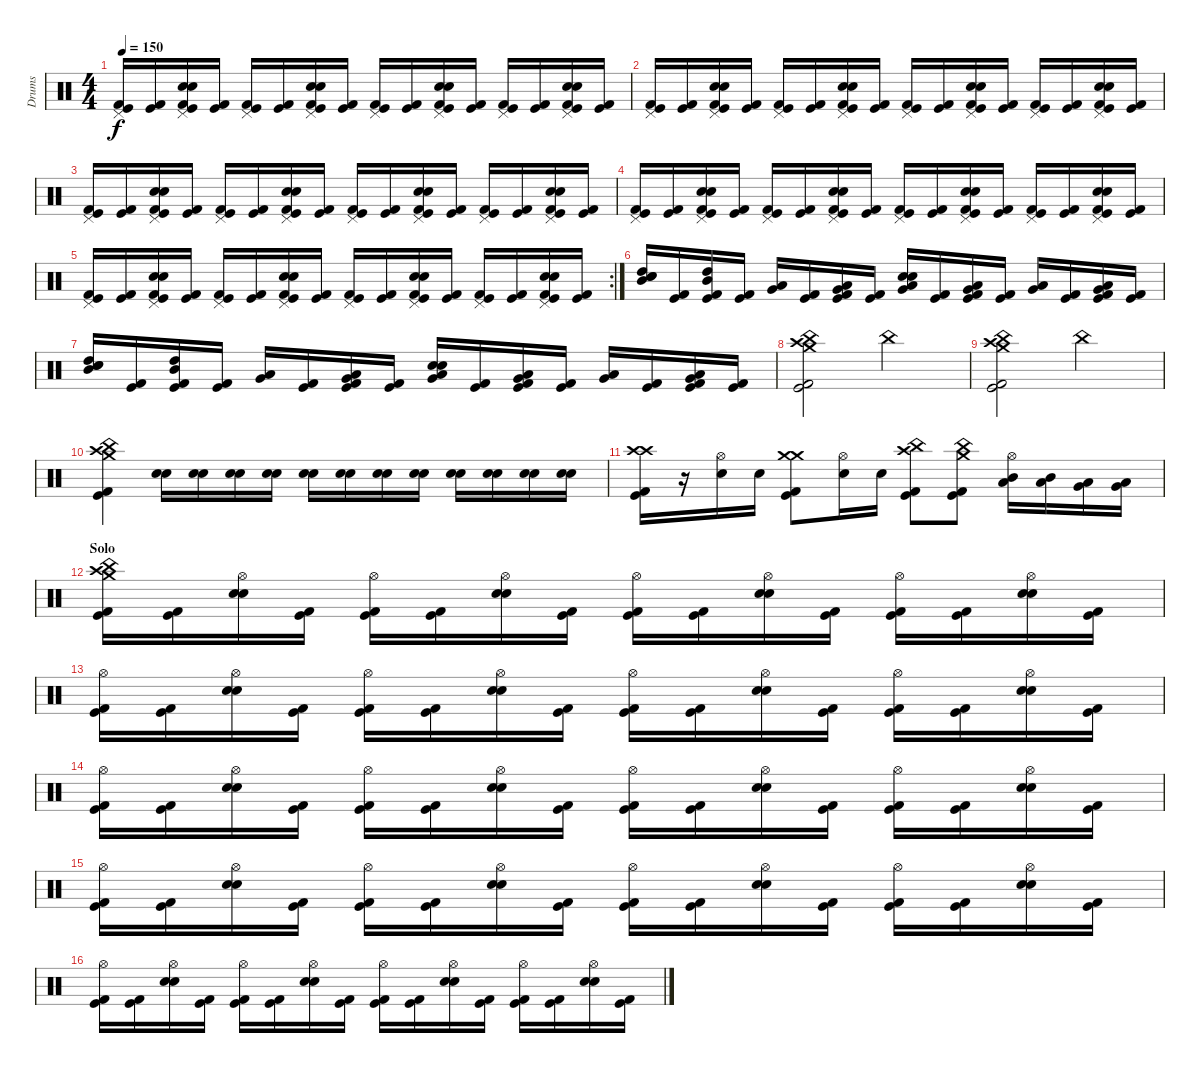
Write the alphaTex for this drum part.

\track ("Drums" "Drums") {instrument percussion}
\staff {score}
\articulation defaults
\ts (4 4)
\tempo 150
\clef neutral
\ks c
("Pedal Hi-Hat (hit)" "Kick (hit) 2" "Kick (hit)").16{dy f} ("Kick (hit) 2" "Kick (hit)").16 ("Pedal Hi-Hat (hit)" "Electric Snare (hit)" "Snare (hit) 2" "Kick (hit) 2" "Kick (hit)").16 ("Kick (hit) 2" "Kick (hit)").16 ("Pedal Hi-Hat (hit)" "Kick (hit) 2" "Kick (hit)").16 ("Kick (hit) 2" "Kick (hit)").16 ("Pedal Hi-Hat (hit)" "Electric Snare (hit)" "Snare (hit) 2" "Kick (hit) 2" "Kick (hit)").16 ("Kick (hit) 2" "Kick (hit)").16 ("Pedal Hi-Hat (hit)" "Kick (hit) 2" "Kick (hit)").16 ("Kick (hit) 2" "Kick (hit)").16 ("Pedal Hi-Hat (hit)" "Electric Snare (hit)" "Snare (hit) 2" "Kick (hit) 2" "Kick (hit)").16 ("Kick (hit) 2" "Kick (hit)").16 ("Pedal Hi-Hat (hit)" "Kick (hit) 2" "Kick (hit)").16 ("Kick (hit) 2" "Kick (hit)").16 ("Pedal Hi-Hat (hit)" "Electric Snare (hit)" "Snare (hit) 2" "Kick (hit) 2" "Kick (hit)").16 ("Kick (hit) 2" "Kick (hit)").16 |
("Pedal Hi-Hat (hit)" "Kick (hit) 2" "Kick (hit)").16 ("Kick (hit) 2" "Kick (hit)").16 ("Pedal Hi-Hat (hit)" "Electric Snare (hit)" "Snare (hit) 2" "Kick (hit) 2" "Kick (hit)").16 ("Kick (hit) 2" "Kick (hit)").16 ("Pedal Hi-Hat (hit)" "Kick (hit) 2" "Kick (hit)").16 ("Kick (hit) 2" "Kick (hit)").16 ("Pedal Hi-Hat (hit)" "Electric Snare (hit)" "Snare (hit) 2" "Kick (hit) 2" "Kick (hit)").16 ("Kick (hit) 2" "Kick (hit)").16 ("Pedal Hi-Hat (hit)" "Kick (hit) 2" "Kick (hit)").16 ("Kick (hit) 2" "Kick (hit)").16 ("Pedal Hi-Hat (hit)" "Electric Snare (hit)" "Snare (hit) 2" "Kick (hit) 2" "Kick (hit)").16 ("Kick (hit) 2" "Kick (hit)").16 ("Pedal Hi-Hat (hit)" "Kick (hit) 2" "Kick (hit)").16 ("Kick (hit) 2" "Kick (hit)").16 ("Pedal Hi-Hat (hit)" "Electric Snare (hit)" "Snare (hit) 2" "Kick (hit) 2" "Kick (hit)").16 ("Kick (hit) 2" "Kick (hit)").16 |
("Pedal Hi-Hat (hit)" "Kick (hit) 2" "Kick (hit)").16 ("Kick (hit) 2" "Kick (hit)").16 ("Pedal Hi-Hat (hit)" "Electric Snare (hit)" "Snare (hit) 2" "Kick (hit) 2" "Kick (hit)").16 ("Kick (hit) 2" "Kick (hit)").16 ("Pedal Hi-Hat (hit)" "Kick (hit) 2" "Kick (hit)").16 ("Kick (hit) 2" "Kick (hit)").16 ("Pedal Hi-Hat (hit)" "Electric Snare (hit)" "Snare (hit) 2" "Kick (hit) 2" "Kick (hit)").16 ("Kick (hit) 2" "Kick (hit)").16 ("Pedal Hi-Hat (hit)" "Kick (hit) 2" "Kick (hit)").16 ("Kick (hit) 2" "Kick (hit)").16 ("Pedal Hi-Hat (hit)" "Electric Snare (hit)" "Snare (hit) 2" "Kick (hit) 2" "Kick (hit)").16 ("Kick (hit) 2" "Kick (hit)").16 ("Pedal Hi-Hat (hit)" "Kick (hit) 2" "Kick (hit)").16 ("Kick (hit) 2" "Kick (hit)").16 ("Pedal Hi-Hat (hit)" "Electric Snare (hit)" "Snare (hit) 2" "Kick (hit) 2" "Kick (hit)").16 ("Kick (hit) 2" "Kick (hit)").16 |
("Pedal Hi-Hat (hit)" "Kick (hit) 2" "Kick (hit)").16 ("Kick (hit) 2" "Kick (hit)").16 ("Pedal Hi-Hat (hit)" "Electric Snare (hit)" "Snare (hit) 2" "Kick (hit) 2" "Kick (hit)").16 ("Kick (hit) 2" "Kick (hit)").16 ("Pedal Hi-Hat (hit)" "Kick (hit) 2" "Kick (hit)").16 ("Kick (hit) 2" "Kick (hit)").16 ("Pedal Hi-Hat (hit)" "Electric Snare (hit)" "Snare (hit) 2" "Kick (hit) 2" "Kick (hit)").16 ("Kick (hit) 2" "Kick (hit)").16 ("Pedal Hi-Hat (hit)" "Kick (hit) 2" "Kick (hit)").16 ("Kick (hit) 2" "Kick (hit)").16 ("Pedal Hi-Hat (hit)" "Electric Snare (hit)" "Snare (hit) 2" "Kick (hit) 2" "Kick (hit)").16 ("Kick (hit) 2" "Kick (hit)").16 ("Pedal Hi-Hat (hit)" "Kick (hit) 2" "Kick (hit)").16 ("Kick (hit) 2" "Kick (hit)").16 ("Pedal Hi-Hat (hit)" "Electric Snare (hit)" "Snare (hit) 2" "Kick (hit) 2" "Kick (hit)").16 ("Kick (hit) 2" "Kick (hit)").16 |
\rc 2
("Pedal Hi-Hat (hit)" "Kick (hit) 2" "Kick (hit)").16 ("Kick (hit) 2" "Kick (hit)").16 ("Pedal Hi-Hat (hit)" "Electric Snare (hit)" "Snare (hit) 2" "Kick (hit) 2" "Kick (hit)").16 ("Kick (hit) 2" "Kick (hit)").16 ("Pedal Hi-Hat (hit)" "Kick (hit) 2" "Kick (hit)").16 ("Kick (hit) 2" "Kick (hit)").16 ("Pedal Hi-Hat (hit)" "Electric Snare (hit)" "Snare (hit) 2" "Kick (hit) 2" "Kick (hit)").16 ("Kick (hit) 2" "Kick (hit)").16 ("Pedal Hi-Hat (hit)" "Kick (hit) 2" "Kick (hit)").16 ("Kick (hit) 2" "Kick (hit)").16 ("Pedal Hi-Hat (hit)" "Electric Snare (hit)" "Snare (hit) 2" "Kick (hit) 2" "Kick (hit)").16 ("Kick (hit) 2" "Kick (hit)").16 ("Pedal Hi-Hat (hit)" "Kick (hit) 2" "Kick (hit)").16 ("Kick (hit) 2" "Kick (hit)").16 ("Pedal Hi-Hat (hit)" "Electric Snare (hit)" "Snare (hit) 2" "Kick (hit) 2" "Kick (hit)").16 ("Kick (hit) 2" "Kick (hit)").16 |
("Snare (hit) 2" "Electric Snare (hit)" "Mid Tom (hit)" "High Tom (hit)").16 ("Kick (hit) 2" "Kick (hit)").16 ("Mid Tom (hit)" "High Tom (hit)" "Kick (hit) 2" "Kick (hit)").16 ("Kick (hit) 2" "Kick (hit)").16 ("Very Low Tom (hit)" "Low Tom (hit)").16 ("Kick (hit) 2" "Kick (hit)").16 ("Very Low Tom (hit)" "Low Tom (hit)" "Kick (hit) 2" "Kick (hit)").16 ("Kick (hit) 2" "Kick (hit)").16 ("Snare (hit) 2" "Electric Snare (hit)" "Very Low Tom (hit)" "Low Floor Tom (hit)").16 ("Kick (hit) 2" "Kick (hit)").16 ("Very Low Tom (hit)" "Low Floor Tom (hit)" "Kick (hit) 2" "Kick (hit)").16 ("Kick (hit) 2" "Kick (hit)").16 ("Low Tom (hit)" "Very Low Tom (hit)").16 ("Kick (hit) 2" "Kick (hit)").16 ("Low Tom (hit)" "Very Low Tom (hit)" "Kick (hit) 2" "Kick (hit)").16 ("Kick (hit) 2" "Kick (hit)").16 |
("Snare (hit) 2" "Electric Snare (hit)" "Mid Tom (hit)" "High Tom (hit)").16 ("Kick (hit) 2" "Kick (hit)").16 ("Mid Tom (hit)" "High Tom (hit)" "Kick (hit) 2" "Kick (hit)").16 ("Kick (hit) 2" "Kick (hit)").16 ("Very Low Tom (hit)" "Low Tom (hit)").16 ("Kick (hit) 2" "Kick (hit)").16 ("Very Low Tom (hit)" "Low Tom (hit)" "Kick (hit) 2" "Kick (hit)").16 ("Kick (hit) 2" "Kick (hit)").16 ("Snare (hit) 2" "Electric Snare (hit)" "Very Low Tom (hit)" "Low Floor Tom (hit)").16 ("Kick (hit) 2" "Kick (hit)").16 ("Very Low Tom (hit)" "Low Floor Tom (hit)" "Kick (hit) 2" "Kick (hit)").16 ("Kick (hit) 2" "Kick (hit)").16 ("Low Tom (hit)" "Very Low Tom (hit)").16 ("Kick (hit) 2" "Kick (hit)").16 ("Low Tom (hit)" "Very Low Tom (hit)" "Kick (hit) 2" "Kick (hit)").16 ("Kick (hit) 2" "Kick (hit)").16 |
("Crash high (hit)" "Crash medium (hit)" "China (hit)" "Kick (hit) 2" "Kick (hit)").2 "China (hit)".2 |
("Crash high (hit)" "Crash medium (hit)" "China (hit)" "Kick (hit) 2" "Kick (hit)").2 "China (hit)".2 |
("Crash medium (hit)" "Crash high (hit)" "China (hit)" "Kick (hit) 2" "Kick (hit)").4 ("Snare (hit) 2" "Electric Snare (hit)").16 ("Snare (hit) 2" "Electric Snare (hit)").16 ("Snare (hit) 2" "Electric Snare (hit)").16 ("Snare (hit) 2" "Electric Snare (hit)").16 ("Snare (hit) 2" "Electric Snare (hit)").16 ("Snare (hit) 2" "Electric Snare (hit)").16 ("Snare (hit) 2" "Electric Snare (hit)").16 ("Snare (hit) 2" "Electric Snare (hit)").16 ("Snare (hit) 2" "Electric Snare (hit)").16 ("Snare (hit) 2" "Electric Snare (hit)").16 ("Snare (hit) 2" "Electric Snare (hit)").16 ("Snare (hit) 2" "Electric Snare (hit)").16 |
("Crash high (hit)" "Crash high (hit)" "Kick (hit) 2" "Kick (hit)").16 r.16 ("Hi-Hat (open)" "Snare (hit) 2").16 "Snare (hit) 2".16 ("Crash medium (hit)" "Crash medium (hit)" "Kick (hit) 2" "Kick (hit)").8 ("Hi-Hat (open)" "Snare (hit) 2").16 "Snare (hit) 2".16 ("China (hit)" "Crash high (hit)" "Kick (hit) 2" "Kick (hit)").8 ("China (hit)" "Crash medium (hit)" "Kick (hit) 2" "Kick (hit)").8 ("Hi-Hat (open)" "Mid Tom (hit)" "Low Tom (hit)").16 ("Mid Tom (hit)" "Low Tom (hit)").16 ("Low Tom (hit)" "Very Low Tom (hit)").16 ("Low Tom (hit)" "Very Low Tom (hit)").16 |
\section ("" "Solo")
("Crash high (hit)" "Crash medium (hit)" "China (hit)" "Kick (hit) 2" "Kick (hit)").16 ("Kick (hit) 2" "Kick (hit)").16 ("Hi-Hat (open)" "Snare (hit) 2" "Electric Snare (hit)").16 ("Kick (hit) 2" "Kick (hit)").16 ("Hi-Hat (open)" "Kick (hit) 2" "Kick (hit)").16 ("Kick (hit) 2" "Kick (hit)").16 ("Hi-Hat (open)" "Snare (hit) 2" "Electric Snare (hit)").16 ("Kick (hit) 2" "Kick (hit)").16 ("Hi-Hat (open)" "Kick (hit) 2" "Kick (hit)").16 ("Kick (hit) 2" "Kick (hit)").16 ("Hi-Hat (open)" "Electric Snare (hit)" "Snare (hit) 2").16 ("Kick (hit) 2" "Kick (hit)").16 ("Hi-Hat (open)" "Kick (hit) 2" "Kick (hit)").16 ("Kick (hit) 2" "Kick (hit)").16 ("Hi-Hat (open)" "Electric Snare (hit)" "Snare (hit) 2").16 ("Kick (hit) 2" "Kick (hit)").16 |
("Hi-Hat (open)" "Kick (hit) 2" "Kick (hit)").16 ("Kick (hit) 2" "Kick (hit)").16 ("Hi-Hat (open)" "Snare (hit) 2" "Electric Snare (hit)").16 ("Kick (hit) 2" "Kick (hit)").16 ("Hi-Hat (open)" "Kick (hit) 2" "Kick (hit)").16 ("Kick (hit) 2" "Kick (hit)").16 ("Hi-Hat (open)" "Snare (hit) 2" "Electric Snare (hit)").16 ("Kick (hit) 2" "Kick (hit)").16 ("Hi-Hat (open)" "Kick (hit) 2" "Kick (hit)").16 ("Kick (hit) 2" "Kick (hit)").16 ("Hi-Hat (open)" "Electric Snare (hit)" "Snare (hit) 2").16 ("Kick (hit) 2" "Kick (hit)").16 ("Hi-Hat (open)" "Kick (hit) 2" "Kick (hit)").16 ("Kick (hit) 2" "Kick (hit)").16 ("Hi-Hat (open)" "Electric Snare (hit)" "Snare (hit) 2").16 ("Kick (hit) 2" "Kick (hit)").16 |
("Hi-Hat (open)" "Kick (hit) 2" "Kick (hit)").16 ("Kick (hit) 2" "Kick (hit)").16 ("Hi-Hat (open)" "Snare (hit) 2" "Electric Snare (hit)").16 ("Kick (hit) 2" "Kick (hit)").16 ("Hi-Hat (open)" "Kick (hit) 2" "Kick (hit)").16 ("Kick (hit) 2" "Kick (hit)").16 ("Hi-Hat (open)" "Snare (hit) 2" "Electric Snare (hit)").16 ("Kick (hit) 2" "Kick (hit)").16 ("Hi-Hat (open)" "Kick (hit) 2" "Kick (hit)").16 ("Kick (hit) 2" "Kick (hit)").16 ("Hi-Hat (open)" "Electric Snare (hit)" "Snare (hit) 2").16 ("Kick (hit) 2" "Kick (hit)").16 ("Hi-Hat (open)" "Kick (hit) 2" "Kick (hit)").16 ("Kick (hit) 2" "Kick (hit)").16 ("Hi-Hat (open)" "Electric Snare (hit)" "Snare (hit) 2").16 ("Kick (hit) 2" "Kick (hit)").16 |
("Hi-Hat (open)" "Kick (hit) 2" "Kick (hit)").16 ("Kick (hit) 2" "Kick (hit)").16 ("Hi-Hat (open)" "Snare (hit) 2" "Electric Snare (hit)").16 ("Kick (hit) 2" "Kick (hit)").16 ("Hi-Hat (open)" "Kick (hit) 2" "Kick (hit)").16 ("Kick (hit) 2" "Kick (hit)").16 ("Hi-Hat (open)" "Snare (hit) 2" "Electric Snare (hit)").16 ("Kick (hit) 2" "Kick (hit)").16 ("Hi-Hat (open)" "Kick (hit) 2" "Kick (hit)").16 ("Kick (hit) 2" "Kick (hit)").16 ("Hi-Hat (open)" "Electric Snare (hit)" "Snare (hit) 2").16 ("Kick (hit) 2" "Kick (hit)").16 ("Hi-Hat (open)" "Kick (hit) 2" "Kick (hit)").16 ("Kick (hit) 2" "Kick (hit)").16 ("Hi-Hat (open)" "Electric Snare (hit)" "Snare (hit) 2").16 ("Kick (hit) 2" "Kick (hit)").16 |
("Hi-Hat (open)" "Kick (hit) 2" "Kick (hit)").16 ("Kick (hit) 2" "Kick (hit)").16 ("Hi-Hat (open)" "Snare (hit) 2" "Electric Snare (hit)").16 ("Kick (hit) 2" "Kick (hit)").16 ("Hi-Hat (open)" "Kick (hit) 2" "Kick (hit)").16 ("Kick (hit) 2" "Kick (hit)").16 ("Hi-Hat (open)" "Snare (hit) 2" "Electric Snare (hit)").16 ("Kick (hit) 2" "Kick (hit)").16 ("Hi-Hat (open)" "Kick (hit) 2" "Kick (hit)").16 ("Kick (hit) 2" "Kick (hit)").16 ("Hi-Hat (open)" "Electric Snare (hit)" "Snare (hit) 2").16 ("Kick (hit) 2" "Kick (hit)").16 ("Hi-Hat (open)" "Kick (hit) 2" "Kick (hit)").16 ("Kick (hit) 2" "Kick (hit)").16 ("Hi-Hat (open)" "Electric Snare (hit)" "Snare (hit) 2").16 ("Kick (hit) 2" "Kick (hit)").16
